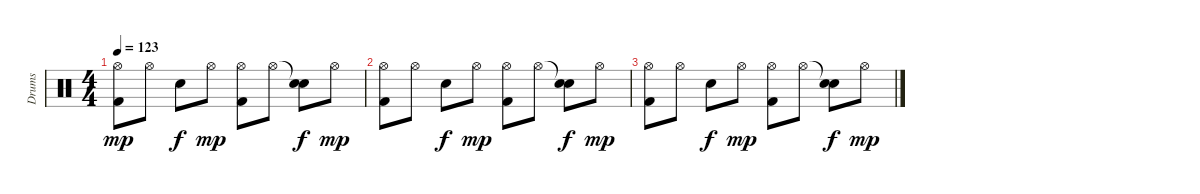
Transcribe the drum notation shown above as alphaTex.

\track ("Drums" "Drums") {instrument percussion}
\staff {score}
\articulation defaults
\ts (4 4)
\tempo 123
\clef neutral
\ks c
("Hi-Hat (open)" "Kick (hit) 2").8{dy mp} "Hi-Hat (open)".8 "Electric Snare (hit)".8{dy f} "Hi-Hat (open)".8{dy mp} ("Hi-Hat (open)" "Kick (hit) 2").8 "Hi-Hat (open)".8 ("Snare (hit)"{t} "Electric Snare (hit)").8{dy f} "Hi-Hat (open)".8{dy mp} |
("Hi-Hat (open)" "Kick (hit) 2").8 "Hi-Hat (open)".8 "Electric Snare (hit)".8{dy f} "Hi-Hat (open)".8{dy mp} ("Hi-Hat (open)" "Kick (hit) 2").8 "Hi-Hat (open)".8 ("Snare (hit)"{t} "Electric Snare (hit)").8{dy f} "Hi-Hat (open)".8{dy mp} |
("Hi-Hat (open)" "Kick (hit) 2").8 "Hi-Hat (open)".8 "Electric Snare (hit)".8{dy f} "Hi-Hat (open)".8{dy mp} ("Hi-Hat (open)" "Kick (hit) 2").8 "Hi-Hat (open)".8 ("Snare (hit)"{t} "Electric Snare (hit)").8{dy f} "Hi-Hat (open)".8{dy mp}
